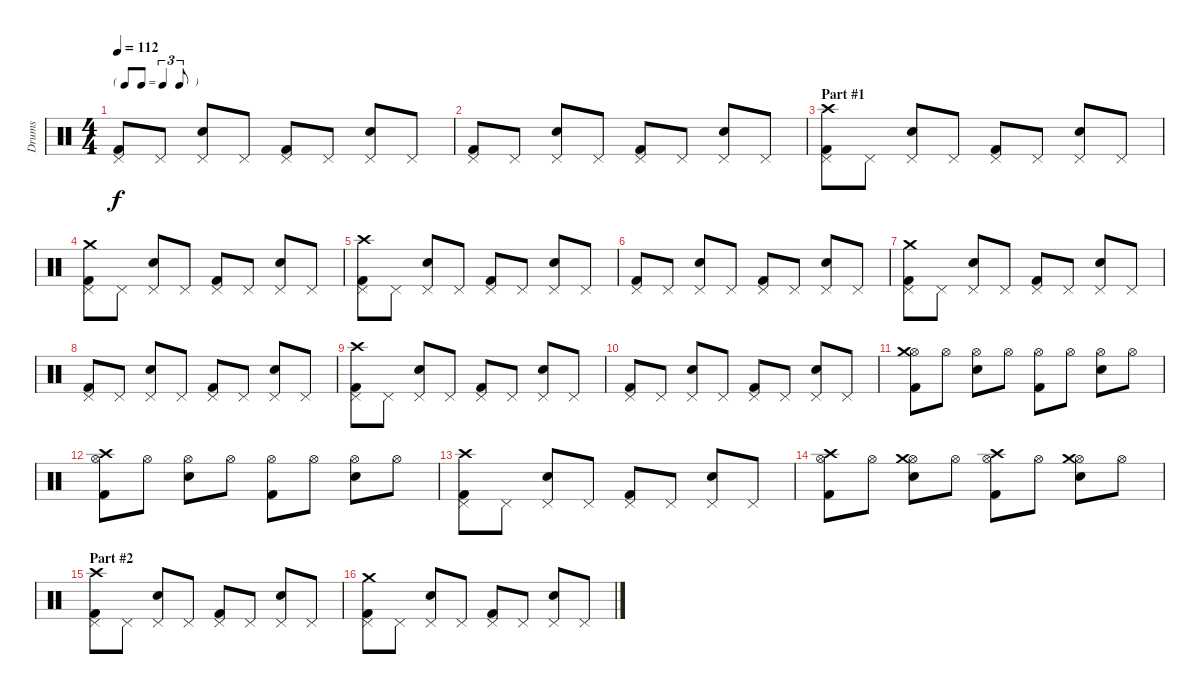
\track ("Drums" "Drums") {instrument percussion}
\staff {score}
\articulation defaults
\ts (4 4)
\tf triplet8th
\tempo 112
\clef neutral
\ks c
("Pedal Hi-Hat (hit)" "Kick (hit) 2").8{dy f} "Pedal Hi-Hat (hit)".8 ("Pedal Hi-Hat (hit)" "Snare (hit) 2").8 "Pedal Hi-Hat (hit)".8 ("Pedal Hi-Hat (hit)" "Kick (hit) 2").8 "Pedal Hi-Hat (hit)".8 ("Pedal Hi-Hat (hit)" "Snare (hit) 2").8 "Pedal Hi-Hat (hit)".8 |
("Pedal Hi-Hat (hit)" "Kick (hit) 2").8 "Pedal Hi-Hat (hit)".8 ("Pedal Hi-Hat (hit)" "Snare (hit) 2").8 "Pedal Hi-Hat (hit)".8 ("Pedal Hi-Hat (hit)" "Kick (hit) 2").8 "Pedal Hi-Hat (hit)".8 ("Pedal Hi-Hat (hit)" "Snare (hit) 2").8 "Pedal Hi-Hat (hit)".8 |
\section ("" "Part #1")
("Pedal Hi-Hat (hit)" "Crash high (hit)" "Kick (hit) 2").8 "Pedal Hi-Hat (hit)".8 ("Pedal Hi-Hat (hit)" "Snare (hit) 2").8 "Pedal Hi-Hat (hit)".8 ("Pedal Hi-Hat (hit)" "Kick (hit) 2").8 "Pedal Hi-Hat (hit)".8 ("Pedal Hi-Hat (hit)" "Snare (hit) 2").8 "Pedal Hi-Hat (hit)".8 |
("Pedal Hi-Hat (hit)" "Crash medium (hit)" "Kick (hit) 2").8 "Pedal Hi-Hat (hit)".8 ("Pedal Hi-Hat (hit)" "Snare (hit) 2").8 "Pedal Hi-Hat (hit)".8 ("Pedal Hi-Hat (hit)" "Kick (hit) 2").8 "Pedal Hi-Hat (hit)".8 ("Pedal Hi-Hat (hit)" "Snare (hit) 2").8 "Pedal Hi-Hat (hit)".8 |
("Pedal Hi-Hat (hit)" "Crash high (hit)" "Kick (hit) 2").8 "Pedal Hi-Hat (hit)".8 ("Pedal Hi-Hat (hit)" "Snare (hit) 2").8 "Pedal Hi-Hat (hit)".8 ("Pedal Hi-Hat (hit)" "Kick (hit) 2").8 "Pedal Hi-Hat (hit)".8 ("Pedal Hi-Hat (hit)" "Snare (hit) 2").8 "Pedal Hi-Hat (hit)".8 |
("Pedal Hi-Hat (hit)" "Kick (hit) 2").8 "Pedal Hi-Hat (hit)".8 ("Pedal Hi-Hat (hit)" "Snare (hit) 2").8 "Pedal Hi-Hat (hit)".8 ("Pedal Hi-Hat (hit)" "Kick (hit) 2").8 "Pedal Hi-Hat (hit)".8 ("Pedal Hi-Hat (hit)" "Snare (hit) 2").8 "Pedal Hi-Hat (hit)".8 |
("Pedal Hi-Hat (hit)" "Crash medium (hit)" "Kick (hit) 2").8 "Pedal Hi-Hat (hit)".8 ("Pedal Hi-Hat (hit)" "Snare (hit) 2").8 "Pedal Hi-Hat (hit)".8 ("Pedal Hi-Hat (hit)" "Kick (hit) 2").8 "Pedal Hi-Hat (hit)".8 ("Pedal Hi-Hat (hit)" "Snare (hit) 2").8 "Pedal Hi-Hat (hit)".8 |
("Pedal Hi-Hat (hit)" "Kick (hit) 2").8 "Pedal Hi-Hat (hit)".8 ("Pedal Hi-Hat (hit)" "Snare (hit) 2").8 "Pedal Hi-Hat (hit)".8 ("Pedal Hi-Hat (hit)" "Kick (hit) 2").8 "Pedal Hi-Hat (hit)".8 ("Pedal Hi-Hat (hit)" "Snare (hit) 2").8 "Pedal Hi-Hat (hit)".8 |
("Pedal Hi-Hat (hit)" "Crash high (hit)" "Kick (hit) 2").8 "Pedal Hi-Hat (hit)".8 ("Pedal Hi-Hat (hit)" "Snare (hit) 2").8 "Pedal Hi-Hat (hit)".8 ("Pedal Hi-Hat (hit)" "Kick (hit) 2").8 "Pedal Hi-Hat (hit)".8 ("Pedal Hi-Hat (hit)" "Snare (hit) 2").8 "Pedal Hi-Hat (hit)".8 |
("Pedal Hi-Hat (hit)" "Kick (hit) 2").8 "Pedal Hi-Hat (hit)".8 ("Pedal Hi-Hat (hit)" "Snare (hit) 2").8 "Pedal Hi-Hat (hit)".8 ("Pedal Hi-Hat (hit)" "Kick (hit) 2").8 "Pedal Hi-Hat (hit)".8 ("Pedal Hi-Hat (hit)" "Snare (hit) 2").8 "Pedal Hi-Hat (hit)".8 |
("Hi-Hat (open)" "Crash medium (hit)" "Kick (hit) 2").8 "Hi-Hat (open)".8 ("Hi-Hat (open)" "Snare (hit) 2").8 "Hi-Hat (open)".8 ("Hi-Hat (open)" "Kick (hit) 2").8 "Hi-Hat (open)".8 ("Hi-Hat (open)" "Snare (hit) 2").8 "Hi-Hat (open)".8 |
("Hi-Hat (open)" "Crash high (hit)" "Kick (hit) 2").8 "Hi-Hat (open)".8 ("Hi-Hat (open)" "Snare (hit) 2").8 "Hi-Hat (open)".8 ("Hi-Hat (open)" "Kick (hit) 2").8 "Hi-Hat (open)".8 ("Hi-Hat (open)" "Snare (hit) 2").8 "Hi-Hat (open)".8 |
("Pedal Hi-Hat (hit)" "Crash high (hit)" "Kick (hit) 2").8 "Pedal Hi-Hat (hit)".8 ("Pedal Hi-Hat (hit)" "Snare (hit) 2").8 "Pedal Hi-Hat (hit)".8 ("Pedal Hi-Hat (hit)" "Kick (hit) 2").8 "Pedal Hi-Hat (hit)".8 ("Pedal Hi-Hat (hit)" "Snare (hit) 2").8 "Pedal Hi-Hat (hit)".8 |
("Hi-Hat (open)" "Crash high (hit)" "Kick (hit) 2").8 "Hi-Hat (open)".8 ("Hi-Hat (open)" "Crash medium (hit)" "Snare (hit) 2").8 "Hi-Hat (open)".8 ("Hi-Hat (open)" "Crash high (hit)" "Kick (hit) 2").8 "Hi-Hat (open)".8 ("Hi-Hat (open)" "Crash medium (hit)" "Snare (hit) 2").8 "Hi-Hat (open)".8 |
\section ("" "Part #2")
("Pedal Hi-Hat (hit)" "Crash high (hit)" "Kick (hit) 2").8 "Pedal Hi-Hat (hit)".8 ("Pedal Hi-Hat (hit)" "Snare (hit) 2").8 "Pedal Hi-Hat (hit)".8 ("Pedal Hi-Hat (hit)" "Kick (hit) 2").8 "Pedal Hi-Hat (hit)".8 ("Pedal Hi-Hat (hit)" "Snare (hit) 2").8 "Pedal Hi-Hat (hit)".8 |
("Pedal Hi-Hat (hit)" "Crash medium (hit)" "Kick (hit) 2").8 "Pedal Hi-Hat (hit)".8 ("Pedal Hi-Hat (hit)" "Snare (hit) 2").8 "Pedal Hi-Hat (hit)".8 ("Pedal Hi-Hat (hit)" "Kick (hit) 2").8 "Pedal Hi-Hat (hit)".8 ("Pedal Hi-Hat (hit)" "Snare (hit) 2").8 "Pedal Hi-Hat (hit)".8
